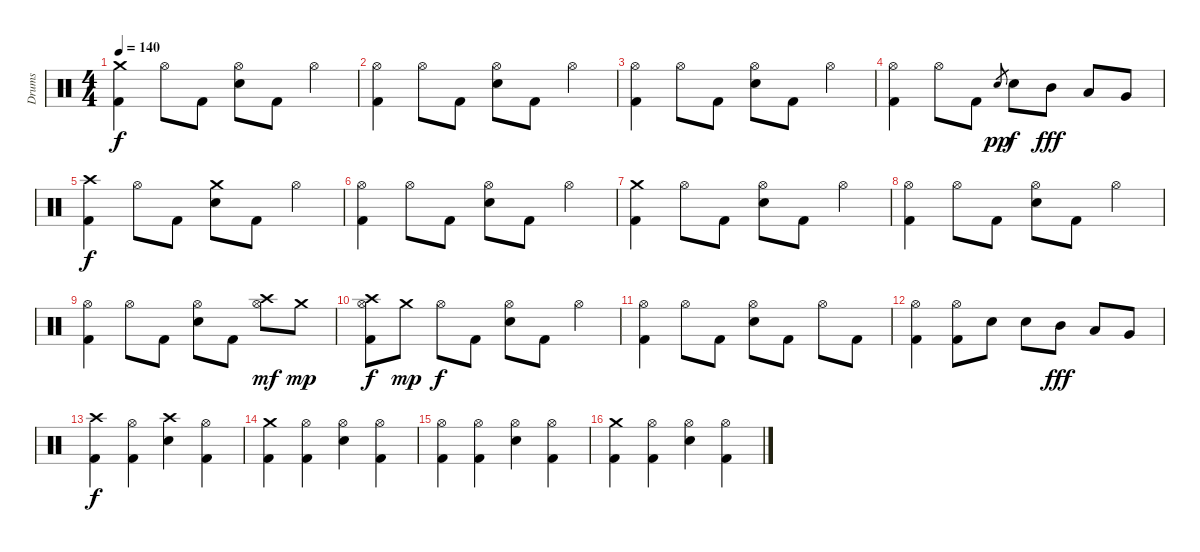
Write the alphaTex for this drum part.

\track ("Drums" "Drums") {instrument percussion}
\staff {score}
\articulation defaults
\ts (4 4)
\tempo 140
\clef neutral
\ks c
("Kick (hit) 2" "Crash medium (hit)").4{dy f} "Hi-Hat (open)".8 "Kick (hit) 2".8 ("Hi-Hat (open)" "Snare (hit) 2").8 "Kick (hit) 2".8 "Hi-Hat (open)".4 |
("Kick (hit) 2" "Hi-Hat (open)").4 "Hi-Hat (open)".8 "Kick (hit) 2".8 ("Hi-Hat (open)" "Snare (hit) 2").8 "Kick (hit) 2".8 "Hi-Hat (open)".4 |
("Kick (hit) 2" "Hi-Hat (open)").4 "Hi-Hat (open)".8 "Kick (hit) 2".8 ("Hi-Hat (open)" "Snare (hit) 2").8 "Kick (hit) 2".8 "Hi-Hat (open)".4 |
("Kick (hit) 2" "Hi-Hat (open)").4 "Hi-Hat (open)".8 "Kick (hit) 2".8 "Snare (hit)".8{gr dy pp} "Snare (hit) 2".8{dy f} "Mid Tom (hit)".8{dy fff} "Low Tom (hit)".8 "Very Low Tom (hit)".8 |
("Kick (hit) 2" "Crash high (hit)").4{dy f} "Hi-Hat (open)".8 "Kick (hit) 2".8 ("Crash medium (hit)" "Snare (hit) 2").8 "Kick (hit) 2".8 "Hi-Hat (open)".4 |
("Kick (hit) 2" "Hi-Hat (open)").4 "Hi-Hat (open)".8 "Kick (hit) 2".8 ("Hi-Hat (open)" "Snare (hit) 2").8 "Kick (hit) 2".8 "Hi-Hat (open)".4 |
("Kick (hit) 2" "Crash medium (hit)").4 "Hi-Hat (open)".8 "Kick (hit) 2".8 ("Hi-Hat (open)" "Snare (hit) 2").8 "Kick (hit) 2".8 "Hi-Hat (open)".4 |
("Kick (hit) 2" "Hi-Hat (open)").4 "Hi-Hat (open)".8 "Kick (hit) 2".8 ("Hi-Hat (open)" "Snare (hit) 2").8 "Kick (hit) 2".8 "Hi-Hat (open)".4 |
("Kick (hit) 2" "Hi-Hat (open)").4 "Hi-Hat (open)".8 "Kick (hit) 2".8 ("Hi-Hat (open)" "Snare (hit) 2").8 "Kick (hit) 2".8 ("Crash high (hit)" "Hi-Hat (open)").8{dy mf} "Crash medium (hit)".8{dy mp} |
("Kick (hit) 2" "Crash high (hit)" "Hi-Hat (open)").8{dy f} "Crash medium (hit)".8{dy mp} "Hi-Hat (open)".8{dy f} "Kick (hit) 2".8 ("Hi-Hat (open)" "Snare (hit) 2").8 "Kick (hit) 2".8 "Hi-Hat (open)".4 |
("Kick (hit) 2" "Hi-Hat (open)").4 "Hi-Hat (open)".8 "Kick (hit) 2".8 ("Hi-Hat (open)" "Snare (hit) 2").8 "Kick (hit) 2".8 "Hi-Hat (open)".8 "Kick (hit) 2".8 |
("Kick (hit) 2" "Hi-Hat (open)").4 ("Kick (hit) 2" "Hi-Hat (open)").8 "Snare (hit) 2".8 "Snare (hit) 2".8 "Mid Tom (hit)".8{dy fff} "Low Tom (hit)".8 "Very Low Tom (hit)".8 |
("Kick (hit) 2" "Crash high (hit)").4{dy f} ("Kick (hit) 2" "Hi-Hat (open)").4 ("Crash high (hit)" "Snare (hit) 2").4 ("Kick (hit) 2" "Hi-Hat (open)").4 |
("Kick (hit) 2" "Crash medium (hit)").4 ("Kick (hit) 2" "Hi-Hat (open)").4 ("Hi-Hat (open)" "Snare (hit) 2").4 ("Kick (hit) 2" "Hi-Hat (open)").4 |
("Kick (hit) 2" "Hi-Hat (open)").4 ("Kick (hit) 2" "Hi-Hat (open)").4 ("Hi-Hat (open)" "Snare (hit) 2").4 ("Kick (hit) 2" "Hi-Hat (open)").4 |
("Kick (hit) 2" "Crash medium (hit)").4 ("Kick (hit) 2" "Hi-Hat (open)").4 ("Hi-Hat (open)" "Snare (hit) 2").4 ("Kick (hit) 2" "Hi-Hat (open)").4
